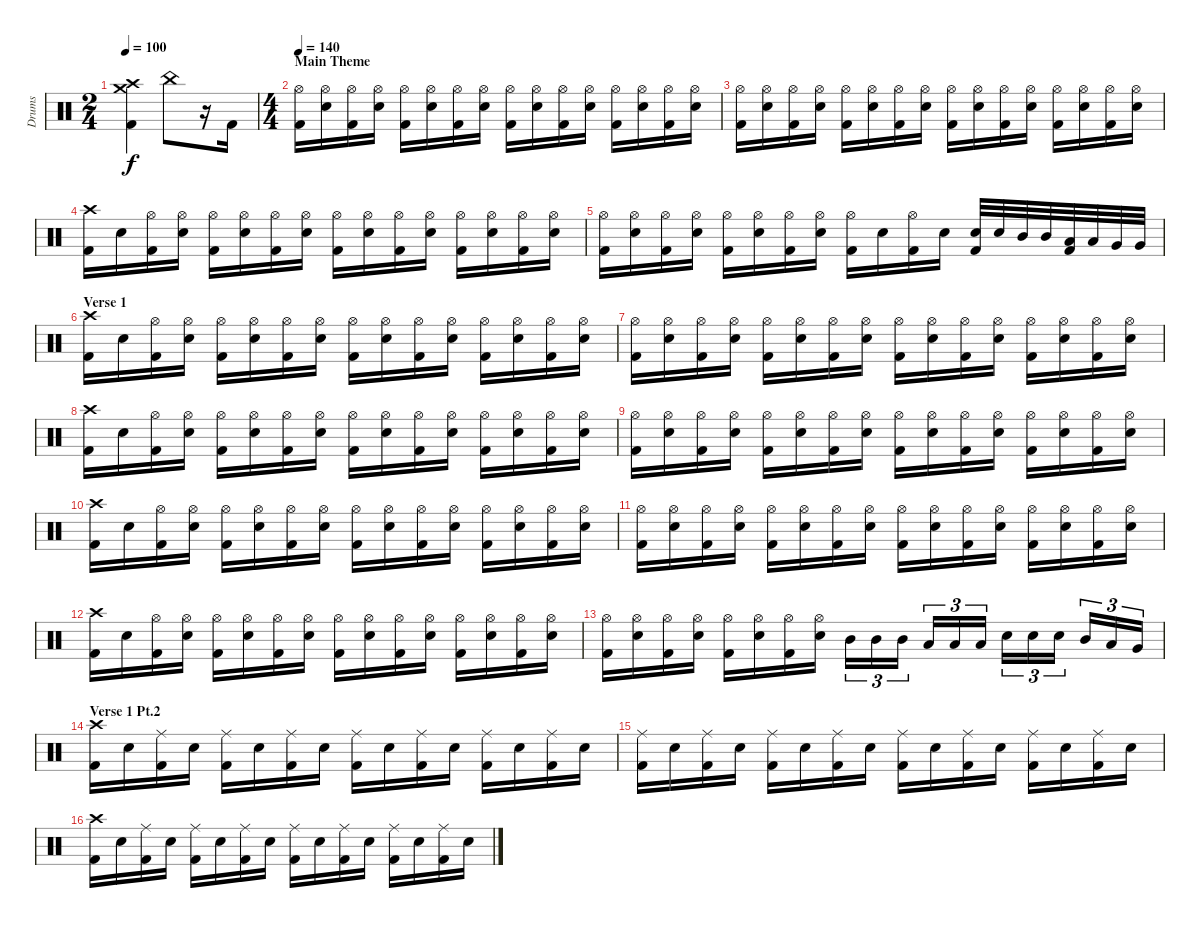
\track ("Drums" "Drums") {instrument percussion}
\staff {score}
\articulation defaults
\ts (2 4)
\tempo 100
\clef neutral
\ks c
("Crash high (hit)" "Crash medium (hit)" "Kick (hit) 2").4{dy f} "China (hit)".8 r.16 "Kick (hit) 2".16 |
\ts (4 4)
\section ("" "Main Theme")
\tempo 140
("Hi-Hat (open)" "Kick (hit) 2").16 ("Hi-Hat (open)" "Electric Snare (hit)").16 ("Hi-Hat (open)" "Kick (hit) 2").16 ("Hi-Hat (open)" "Electric Snare (hit)").16 ("Hi-Hat (open)" "Kick (hit) 2").16 ("Hi-Hat (open)" "Electric Snare (hit)").16 ("Hi-Hat (open)" "Kick (hit) 2").16 ("Hi-Hat (open)" "Electric Snare (hit)").16 ("Hi-Hat (open)" "Kick (hit) 2").16 ("Hi-Hat (open)" "Electric Snare (hit)").16 ("Hi-Hat (open)" "Kick (hit) 2").16 ("Hi-Hat (open)" "Electric Snare (hit)").16 ("Hi-Hat (open)" "Kick (hit) 2").16 ("Hi-Hat (open)" "Electric Snare (hit)").16 ("Hi-Hat (open)" "Kick (hit) 2").16 ("Hi-Hat (open)" "Electric Snare (hit)").16 |
("Hi-Hat (open)" "Kick (hit) 2").16 ("Hi-Hat (open)" "Electric Snare (hit)").16 ("Hi-Hat (open)" "Kick (hit) 2").16 ("Hi-Hat (open)" "Electric Snare (hit)").16 ("Hi-Hat (open)" "Kick (hit) 2").16 ("Hi-Hat (open)" "Electric Snare (hit)").16 ("Hi-Hat (open)" "Kick (hit) 2").16 ("Hi-Hat (open)" "Electric Snare (hit)").16 ("Hi-Hat (open)" "Kick (hit) 2").16 ("Hi-Hat (open)" "Electric Snare (hit)").16 ("Hi-Hat (open)" "Kick (hit) 2").16 ("Hi-Hat (open)" "Electric Snare (hit)").16 ("Hi-Hat (open)" "Kick (hit) 2").16 ("Hi-Hat (open)" "Electric Snare (hit)").16 ("Hi-Hat (open)" "Kick (hit) 2").16 ("Hi-Hat (open)" "Electric Snare (hit)").16 |
("Crash high (hit)" "Kick (hit) 2").16 "Electric Snare (hit)".16 ("Hi-Hat (open)" "Kick (hit) 2").16 ("Hi-Hat (open)" "Electric Snare (hit)").16 ("Hi-Hat (open)" "Kick (hit) 2").16 ("Hi-Hat (open)" "Electric Snare (hit)").16 ("Hi-Hat (open)" "Kick (hit) 2").16 ("Hi-Hat (open)" "Electric Snare (hit)").16 ("Hi-Hat (open)" "Kick (hit) 2").16 ("Hi-Hat (open)" "Electric Snare (hit)").16 ("Hi-Hat (open)" "Kick (hit) 2").16 ("Hi-Hat (open)" "Electric Snare (hit)").16 ("Hi-Hat (open)" "Kick (hit) 2").16 ("Hi-Hat (open)" "Electric Snare (hit)").16 ("Hi-Hat (open)" "Kick (hit) 2").16 ("Hi-Hat (open)" "Electric Snare (hit)").16 |
("Hi-Hat (open)" "Kick (hit) 2").16 ("Hi-Hat (open)" "Electric Snare (hit)").16 ("Hi-Hat (open)" "Kick (hit) 2").16 ("Hi-Hat (open)" "Electric Snare (hit)").16 ("Hi-Hat (open)" "Kick (hit) 2").16 ("Hi-Hat (open)" "Electric Snare (hit)").16 ("Hi-Hat (open)" "Kick (hit) 2").16 ("Hi-Hat (open)" "Electric Snare (hit)").16 ("Hi-Hat (open)" "Kick (hit) 2").16 "Electric Snare (hit)".16 ("Hi-Hat (open)" "Kick (hit) 2").16 "Electric Snare (hit)".16 ("Electric Snare (hit)" "Kick (hit) 2").32 "Electric Snare (hit)".32 "Mid Tom (hit)".32 "Mid Tom (hit)".32 ("Low Tom (hit)" "Kick (hit) 2").32 "Low Tom (hit)".32 "Very Low Tom (hit)".32 "Very Low Tom (hit)".32 |
\section ("" "Verse 1")
("Crash high (hit)" "Kick (hit) 2").16 "Electric Snare (hit)".16 ("Hi-Hat (open)" "Kick (hit) 2").16 ("Hi-Hat (open)" "Electric Snare (hit)").16 ("Hi-Hat (open)" "Kick (hit) 2").16 ("Hi-Hat (open)" "Electric Snare (hit)").16 ("Hi-Hat (open)" "Kick (hit) 2").16 ("Hi-Hat (open)" "Electric Snare (hit)").16 ("Hi-Hat (open)" "Kick (hit) 2").16 ("Hi-Hat (open)" "Electric Snare (hit)").16 ("Hi-Hat (open)" "Kick (hit) 2").16 ("Hi-Hat (open)" "Electric Snare (hit)").16 ("Hi-Hat (open)" "Kick (hit) 2").16 ("Hi-Hat (open)" "Electric Snare (hit)").16 ("Hi-Hat (open)" "Kick (hit) 2").16 ("Hi-Hat (open)" "Electric Snare (hit)").16 |
("Hi-Hat (open)" "Kick (hit) 2").16 ("Hi-Hat (open)" "Electric Snare (hit)").16 ("Hi-Hat (open)" "Kick (hit) 2").16 ("Hi-Hat (open)" "Electric Snare (hit)").16 ("Hi-Hat (open)" "Kick (hit) 2").16 ("Hi-Hat (open)" "Electric Snare (hit)").16 ("Hi-Hat (open)" "Kick (hit) 2").16 ("Hi-Hat (open)" "Electric Snare (hit)").16 ("Hi-Hat (open)" "Kick (hit) 2").16 ("Hi-Hat (open)" "Electric Snare (hit)").16 ("Hi-Hat (open)" "Kick (hit) 2").16 ("Hi-Hat (open)" "Electric Snare (hit)").16 ("Hi-Hat (open)" "Kick (hit) 2").16 ("Hi-Hat (open)" "Electric Snare (hit)").16 ("Hi-Hat (open)" "Kick (hit) 2").16 ("Hi-Hat (open)" "Electric Snare (hit)").16 |
("Crash high (hit)" "Kick (hit) 2").16 "Electric Snare (hit)".16 ("Hi-Hat (open)" "Kick (hit) 2").16 ("Hi-Hat (open)" "Electric Snare (hit)").16 ("Hi-Hat (open)" "Kick (hit) 2").16 ("Hi-Hat (open)" "Electric Snare (hit)").16 ("Hi-Hat (open)" "Kick (hit) 2").16 ("Hi-Hat (open)" "Electric Snare (hit)").16 ("Hi-Hat (open)" "Kick (hit) 2").16 ("Hi-Hat (open)" "Electric Snare (hit)").16 ("Hi-Hat (open)" "Kick (hit) 2").16 ("Hi-Hat (open)" "Electric Snare (hit)").16 ("Hi-Hat (open)" "Kick (hit) 2").16 ("Hi-Hat (open)" "Electric Snare (hit)").16 ("Hi-Hat (open)" "Kick (hit) 2").16 ("Hi-Hat (open)" "Electric Snare (hit)").16 |
("Hi-Hat (open)" "Kick (hit) 2").16 ("Hi-Hat (open)" "Electric Snare (hit)").16 ("Hi-Hat (open)" "Kick (hit) 2").16 ("Hi-Hat (open)" "Electric Snare (hit)").16 ("Hi-Hat (open)" "Kick (hit) 2").16 ("Hi-Hat (open)" "Electric Snare (hit)").16 ("Hi-Hat (open)" "Kick (hit) 2").16 ("Hi-Hat (open)" "Electric Snare (hit)").16 ("Hi-Hat (open)" "Kick (hit) 2").16 ("Hi-Hat (open)" "Electric Snare (hit)").16 ("Hi-Hat (open)" "Kick (hit) 2").16 ("Hi-Hat (open)" "Electric Snare (hit)").16 ("Hi-Hat (open)" "Kick (hit) 2").16 ("Hi-Hat (open)" "Electric Snare (hit)").16 ("Hi-Hat (open)" "Kick (hit) 2").16 ("Hi-Hat (open)" "Electric Snare (hit)").16 |
("Crash high (hit)" "Kick (hit) 2").16 "Electric Snare (hit)".16 ("Hi-Hat (open)" "Kick (hit) 2").16 ("Hi-Hat (open)" "Electric Snare (hit)").16 ("Hi-Hat (open)" "Kick (hit) 2").16 ("Hi-Hat (open)" "Electric Snare (hit)").16 ("Hi-Hat (open)" "Kick (hit) 2").16 ("Hi-Hat (open)" "Electric Snare (hit)").16 ("Hi-Hat (open)" "Kick (hit) 2").16 ("Hi-Hat (open)" "Electric Snare (hit)").16 ("Hi-Hat (open)" "Kick (hit) 2").16 ("Hi-Hat (open)" "Electric Snare (hit)").16 ("Hi-Hat (open)" "Kick (hit) 2").16 ("Hi-Hat (open)" "Electric Snare (hit)").16 ("Hi-Hat (open)" "Kick (hit) 2").16 ("Hi-Hat (open)" "Electric Snare (hit)").16 |
("Hi-Hat (open)" "Kick (hit) 2").16 ("Hi-Hat (open)" "Electric Snare (hit)").16 ("Hi-Hat (open)" "Kick (hit) 2").16 ("Hi-Hat (open)" "Electric Snare (hit)").16 ("Hi-Hat (open)" "Kick (hit) 2").16 ("Hi-Hat (open)" "Electric Snare (hit)").16 ("Hi-Hat (open)" "Kick (hit) 2").16 ("Hi-Hat (open)" "Electric Snare (hit)").16 ("Hi-Hat (open)" "Kick (hit) 2").16 ("Hi-Hat (open)" "Electric Snare (hit)").16 ("Hi-Hat (open)" "Kick (hit) 2").16 ("Hi-Hat (open)" "Electric Snare (hit)").16 ("Hi-Hat (open)" "Kick (hit) 2").16 ("Hi-Hat (open)" "Electric Snare (hit)").16 ("Hi-Hat (open)" "Kick (hit) 2").16 ("Hi-Hat (open)" "Electric Snare (hit)").16 |
("Crash high (hit)" "Kick (hit) 2").16 "Electric Snare (hit)".16 ("Hi-Hat (open)" "Kick (hit) 2").16 ("Hi-Hat (open)" "Electric Snare (hit)").16 ("Hi-Hat (open)" "Kick (hit) 2").16 ("Hi-Hat (open)" "Electric Snare (hit)").16 ("Hi-Hat (open)" "Kick (hit) 2").16 ("Hi-Hat (open)" "Electric Snare (hit)").16 ("Hi-Hat (open)" "Kick (hit) 2").16 ("Hi-Hat (open)" "Electric Snare (hit)").16 ("Hi-Hat (open)" "Kick (hit) 2").16 ("Hi-Hat (open)" "Electric Snare (hit)").16 ("Hi-Hat (open)" "Kick (hit) 2").16 ("Hi-Hat (open)" "Electric Snare (hit)").16 ("Hi-Hat (open)" "Kick (hit) 2").16 ("Hi-Hat (open)" "Electric Snare (hit)").16 |
("Hi-Hat (open)" "Kick (hit) 2").16 ("Hi-Hat (open)" "Electric Snare (hit)").16 ("Hi-Hat (open)" "Kick (hit) 2").16 ("Hi-Hat (open)" "Electric Snare (hit)").16 ("Hi-Hat (open)" "Kick (hit) 2").16 ("Hi-Hat (open)" "Electric Snare (hit)").16 ("Hi-Hat (open)" "Kick (hit) 2").16 ("Hi-Hat (open)" "Electric Snare (hit)").16 "Mid Tom (hit)".16{tu (3 2)} "Mid Tom (hit)".16{tu (3 2)} "Mid Tom (hit)".16{tu (3 2)} "Low Tom (hit)".16{tu (3 2)} "Low Tom (hit)".16{tu (3 2)} "Low Tom (hit)".16{tu (3 2)} "Electric Snare (hit)".16{tu (3 2)} "Electric Snare (hit)".16{tu (3 2)} "Electric Snare (hit)".16{tu (3 2)} "Mid Tom (hit)".16{tu (3 2)} "Low Tom (hit)".16{tu (3 2)} "Very Low Tom (hit)".16{tu (3 2)} |
\section ("" "Verse 1 Pt.2")
("Crash high (hit)" "Kick (hit) 2").16 "Electric Snare (hit)".16 ("Ride (middle)" "Kick (hit) 2").16 "Electric Snare (hit)".16 ("Ride (middle)" "Kick (hit) 2").16 "Electric Snare (hit)".16 ("Ride (middle)" "Kick (hit) 2").16 "Electric Snare (hit)".16 ("Ride (middle)" "Kick (hit) 2").16 "Electric Snare (hit)".16 ("Ride (middle)" "Kick (hit) 2").16 "Electric Snare (hit)".16 ("Ride (middle)" "Kick (hit) 2").16 "Electric Snare (hit)".16 ("Ride (middle)" "Kick (hit) 2").16 "Electric Snare (hit)".16 |
("Ride (middle)" "Kick (hit) 2").16 "Electric Snare (hit)".16 ("Ride (middle)" "Kick (hit) 2").16 "Electric Snare (hit)".16 ("Ride (middle)" "Kick (hit) 2").16 "Electric Snare (hit)".16 ("Ride (middle)" "Kick (hit) 2").16 "Electric Snare (hit)".16 ("Ride (middle)" "Kick (hit) 2").16 "Electric Snare (hit)".16 ("Ride (middle)" "Kick (hit) 2").16 "Electric Snare (hit)".16 ("Ride (middle)" "Kick (hit) 2").16 "Electric Snare (hit)".16 ("Ride (middle)" "Kick (hit) 2").16 "Electric Snare (hit)".16 |
("Crash high (hit)" "Kick (hit) 2").16 "Electric Snare (hit)".16 ("Ride (middle)" "Kick (hit) 2").16 "Electric Snare (hit)".16 ("Ride (middle)" "Kick (hit) 2").16 "Electric Snare (hit)".16 ("Ride (middle)" "Kick (hit) 2").16 "Electric Snare (hit)".16 ("Ride (middle)" "Kick (hit) 2").16 "Electric Snare (hit)".16 ("Ride (middle)" "Kick (hit) 2").16 "Electric Snare (hit)".16 ("Ride (middle)" "Kick (hit) 2").16 "Electric Snare (hit)".16 ("Ride (middle)" "Kick (hit) 2").16 "Electric Snare (hit)".16
